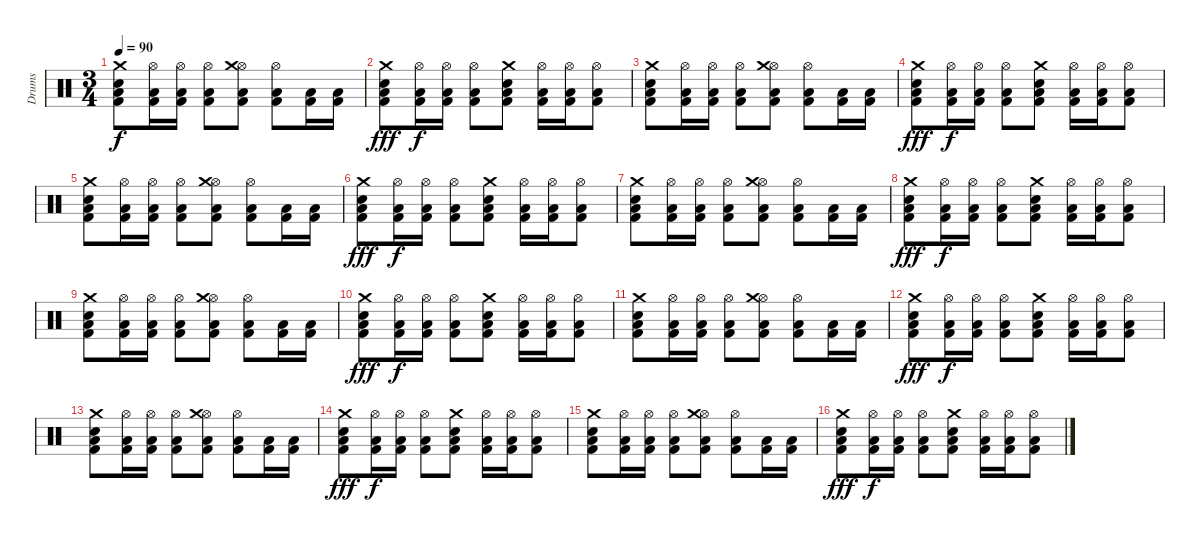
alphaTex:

\track ("Drums" "Drums") {instrument percussion}
\staff {score}
\articulation defaults
\ts (3 4)
\tempo 90
\clef neutral
\ks c
("Kick (hit) 2" "Low Floor Tom (hit)" "Electric Snare (hit)" "Crash medium (hit)").8{dy f} ("Kick (hit) 2" "Low Floor Tom (hit)" "Hi-Hat (open)").16 ("Kick (hit) 2" "Low Floor Tom (hit)" "Hi-Hat (open)").16 ("Kick (hit) 2" "Low Floor Tom (hit)" "Hi-Hat (open)").8 ("Kick (hit) 2" "Low Floor Tom (hit)" "Hi-Hat (open)" "Crash medium (hit)").8 ("Kick (hit) 2" "Low Floor Tom (hit)" "Hi-Hat (open)").8 ("Kick (hit) 2" "Low Floor Tom (hit)").16 ("Kick (hit) 2" "Low Floor Tom (hit)").16 |
("Kick (hit) 2" "Low Floor Tom (hit)" "Electric Snare (hit)" "Crash medium (hit)").8{dy fff} ("Kick (hit) 2" "Low Floor Tom (hit)" "Hi-Hat (open)").16{dy f} ("Kick (hit) 2" "Low Floor Tom (hit)" "Hi-Hat (open)").16 ("Kick (hit) 2" "Low Floor Tom (hit)" "Hi-Hat (open)").8 ("Kick (hit) 2" "Low Floor Tom (hit)" "Electric Snare (hit)" "Crash medium (hit)").8 ("Kick (hit) 2" "Low Floor Tom (hit)" "Hi-Hat (open)").16 ("Kick (hit) 2" "Low Floor Tom (hit)" "Hi-Hat (open)").16 ("Kick (hit) 2" "Low Floor Tom (hit)" "Hi-Hat (open)").8 |
("Kick (hit) 2" "Low Floor Tom (hit)" "Electric Snare (hit)" "Crash medium (hit)").8 ("Kick (hit) 2" "Low Floor Tom (hit)" "Hi-Hat (open)").16 ("Kick (hit) 2" "Low Floor Tom (hit)" "Hi-Hat (open)").16 ("Kick (hit) 2" "Low Floor Tom (hit)" "Hi-Hat (open)").8 ("Kick (hit) 2" "Low Floor Tom (hit)" "Hi-Hat (open)" "Crash medium (hit)").8 ("Kick (hit) 2" "Low Floor Tom (hit)" "Hi-Hat (open)").8 ("Kick (hit) 2" "Low Floor Tom (hit)").16 ("Kick (hit) 2" "Low Floor Tom (hit)").16 |
("Kick (hit) 2" "Low Floor Tom (hit)" "Electric Snare (hit)" "Crash medium (hit)").8{dy fff} ("Kick (hit) 2" "Low Floor Tom (hit)" "Hi-Hat (open)").16{dy f} ("Kick (hit) 2" "Low Floor Tom (hit)" "Hi-Hat (open)").16 ("Kick (hit) 2" "Low Floor Tom (hit)" "Hi-Hat (open)").8 ("Kick (hit) 2" "Low Floor Tom (hit)" "Electric Snare (hit)" "Crash medium (hit)").8 ("Kick (hit) 2" "Low Floor Tom (hit)" "Hi-Hat (open)").16 ("Kick (hit) 2" "Low Floor Tom (hit)" "Hi-Hat (open)").16 ("Kick (hit) 2" "Low Floor Tom (hit)" "Hi-Hat (open)").8 |
("Kick (hit) 2" "Low Floor Tom (hit)" "Electric Snare (hit)" "Crash medium (hit)").8 ("Kick (hit) 2" "Low Floor Tom (hit)" "Hi-Hat (open)").16 ("Kick (hit) 2" "Low Floor Tom (hit)" "Hi-Hat (open)").16 ("Kick (hit) 2" "Low Floor Tom (hit)" "Hi-Hat (open)").8 ("Kick (hit) 2" "Low Floor Tom (hit)" "Hi-Hat (open)" "Crash medium (hit)").8 ("Kick (hit) 2" "Low Floor Tom (hit)" "Hi-Hat (open)").8 ("Kick (hit) 2" "Low Floor Tom (hit)").16 ("Kick (hit) 2" "Low Floor Tom (hit)").16 |
("Kick (hit) 2" "Low Floor Tom (hit)" "Electric Snare (hit)" "Crash medium (hit)").8{dy fff} ("Kick (hit) 2" "Low Floor Tom (hit)" "Hi-Hat (open)").16{dy f} ("Kick (hit) 2" "Low Floor Tom (hit)" "Hi-Hat (open)").16 ("Kick (hit) 2" "Low Floor Tom (hit)" "Hi-Hat (open)").8 ("Kick (hit) 2" "Low Floor Tom (hit)" "Electric Snare (hit)" "Crash medium (hit)").8 ("Kick (hit) 2" "Low Floor Tom (hit)" "Hi-Hat (open)").16 ("Kick (hit) 2" "Low Floor Tom (hit)" "Hi-Hat (open)").16 ("Kick (hit) 2" "Low Floor Tom (hit)" "Hi-Hat (open)").8 |
("Kick (hit) 2" "Low Floor Tom (hit)" "Electric Snare (hit)" "Crash medium (hit)").8 ("Kick (hit) 2" "Low Floor Tom (hit)" "Hi-Hat (open)").16 ("Kick (hit) 2" "Low Floor Tom (hit)" "Hi-Hat (open)").16 ("Kick (hit) 2" "Low Floor Tom (hit)" "Hi-Hat (open)").8 ("Kick (hit) 2" "Low Floor Tom (hit)" "Hi-Hat (open)" "Crash medium (hit)").8 ("Kick (hit) 2" "Low Floor Tom (hit)" "Hi-Hat (open)").8 ("Kick (hit) 2" "Low Floor Tom (hit)").16 ("Kick (hit) 2" "Low Floor Tom (hit)").16 |
("Kick (hit) 2" "Low Floor Tom (hit)" "Electric Snare (hit)" "Crash medium (hit)").8{dy fff} ("Kick (hit) 2" "Low Floor Tom (hit)" "Hi-Hat (open)").16{dy f} ("Kick (hit) 2" "Low Floor Tom (hit)" "Hi-Hat (open)").16 ("Kick (hit) 2" "Low Floor Tom (hit)" "Hi-Hat (open)").8 ("Kick (hit) 2" "Low Floor Tom (hit)" "Electric Snare (hit)" "Crash medium (hit)").8 ("Kick (hit) 2" "Low Floor Tom (hit)" "Hi-Hat (open)").16 ("Kick (hit) 2" "Low Floor Tom (hit)" "Hi-Hat (open)").16 ("Kick (hit) 2" "Low Floor Tom (hit)" "Hi-Hat (open)").8 |
("Kick (hit) 2" "Low Floor Tom (hit)" "Electric Snare (hit)" "Crash medium (hit)").8 ("Kick (hit) 2" "Low Floor Tom (hit)" "Hi-Hat (open)").16 ("Kick (hit) 2" "Low Floor Tom (hit)" "Hi-Hat (open)").16 ("Kick (hit) 2" "Low Floor Tom (hit)" "Hi-Hat (open)").8 ("Kick (hit) 2" "Low Floor Tom (hit)" "Hi-Hat (open)" "Crash medium (hit)").8 ("Kick (hit) 2" "Low Floor Tom (hit)" "Hi-Hat (open)").8 ("Kick (hit) 2" "Low Floor Tom (hit)").16 ("Kick (hit) 2" "Low Floor Tom (hit)").16 |
("Kick (hit) 2" "Low Floor Tom (hit)" "Electric Snare (hit)" "Crash medium (hit)").8{dy fff} ("Kick (hit) 2" "Low Floor Tom (hit)" "Hi-Hat (open)").16{dy f} ("Kick (hit) 2" "Low Floor Tom (hit)" "Hi-Hat (open)").16 ("Kick (hit) 2" "Low Floor Tom (hit)" "Hi-Hat (open)").8 ("Kick (hit) 2" "Low Floor Tom (hit)" "Electric Snare (hit)" "Crash medium (hit)").8 ("Kick (hit) 2" "Low Floor Tom (hit)" "Hi-Hat (open)").16 ("Kick (hit) 2" "Low Floor Tom (hit)" "Hi-Hat (open)").16 ("Kick (hit) 2" "Low Floor Tom (hit)" "Hi-Hat (open)").8 |
("Kick (hit) 2" "Low Floor Tom (hit)" "Electric Snare (hit)" "Crash medium (hit)").8 ("Kick (hit) 2" "Low Floor Tom (hit)" "Hi-Hat (open)").16 ("Kick (hit) 2" "Low Floor Tom (hit)" "Hi-Hat (open)").16 ("Kick (hit) 2" "Low Floor Tom (hit)" "Hi-Hat (open)").8 ("Kick (hit) 2" "Low Floor Tom (hit)" "Hi-Hat (open)" "Crash medium (hit)").8 ("Kick (hit) 2" "Low Floor Tom (hit)" "Hi-Hat (open)").8 ("Kick (hit) 2" "Low Floor Tom (hit)").16 ("Kick (hit) 2" "Low Floor Tom (hit)").16 |
("Kick (hit) 2" "Low Floor Tom (hit)" "Electric Snare (hit)" "Crash medium (hit)").8{dy fff} ("Kick (hit) 2" "Low Floor Tom (hit)" "Hi-Hat (open)").16{dy f} ("Kick (hit) 2" "Low Floor Tom (hit)" "Hi-Hat (open)").16 ("Kick (hit) 2" "Low Floor Tom (hit)" "Hi-Hat (open)").8 ("Kick (hit) 2" "Low Floor Tom (hit)" "Electric Snare (hit)" "Crash medium (hit)").8 ("Kick (hit) 2" "Low Floor Tom (hit)" "Hi-Hat (open)").16 ("Kick (hit) 2" "Low Floor Tom (hit)" "Hi-Hat (open)").16 ("Kick (hit) 2" "Low Floor Tom (hit)" "Hi-Hat (open)").8 |
("Kick (hit) 2" "Low Floor Tom (hit)" "Electric Snare (hit)" "Crash medium (hit)").8 ("Kick (hit) 2" "Low Floor Tom (hit)" "Hi-Hat (open)").16 ("Kick (hit) 2" "Low Floor Tom (hit)" "Hi-Hat (open)").16 ("Kick (hit) 2" "Low Floor Tom (hit)" "Hi-Hat (open)").8 ("Kick (hit) 2" "Low Floor Tom (hit)" "Hi-Hat (open)" "Crash medium (hit)").8 ("Kick (hit) 2" "Low Floor Tom (hit)" "Hi-Hat (open)").8 ("Kick (hit) 2" "Low Floor Tom (hit)").16 ("Kick (hit) 2" "Low Floor Tom (hit)").16 |
("Kick (hit) 2" "Low Floor Tom (hit)" "Electric Snare (hit)" "Crash medium (hit)").8{dy fff} ("Kick (hit) 2" "Low Floor Tom (hit)" "Hi-Hat (open)").16{dy f} ("Kick (hit) 2" "Low Floor Tom (hit)" "Hi-Hat (open)").16 ("Kick (hit) 2" "Low Floor Tom (hit)" "Hi-Hat (open)").8 ("Kick (hit) 2" "Low Floor Tom (hit)" "Electric Snare (hit)" "Crash medium (hit)").8 ("Kick (hit) 2" "Low Floor Tom (hit)" "Hi-Hat (open)").16 ("Kick (hit) 2" "Low Floor Tom (hit)" "Hi-Hat (open)").16 ("Kick (hit) 2" "Low Floor Tom (hit)" "Hi-Hat (open)").8 |
("Kick (hit) 2" "Low Floor Tom (hit)" "Electric Snare (hit)" "Crash medium (hit)").8 ("Kick (hit) 2" "Low Floor Tom (hit)" "Hi-Hat (open)").16 ("Kick (hit) 2" "Low Floor Tom (hit)" "Hi-Hat (open)").16 ("Kick (hit) 2" "Low Floor Tom (hit)" "Hi-Hat (open)").8 ("Kick (hit) 2" "Low Floor Tom (hit)" "Hi-Hat (open)" "Crash medium (hit)").8 ("Kick (hit) 2" "Low Floor Tom (hit)" "Hi-Hat (open)").8 ("Kick (hit) 2" "Low Floor Tom (hit)").16 ("Kick (hit) 2" "Low Floor Tom (hit)").16 |
("Kick (hit) 2" "Low Floor Tom (hit)" "Electric Snare (hit)" "Crash medium (hit)").8{dy fff} ("Kick (hit) 2" "Low Floor Tom (hit)" "Hi-Hat (open)").16{dy f} ("Kick (hit) 2" "Low Floor Tom (hit)" "Hi-Hat (open)").16 ("Kick (hit) 2" "Low Floor Tom (hit)" "Hi-Hat (open)").8 ("Kick (hit) 2" "Low Floor Tom (hit)" "Electric Snare (hit)" "Crash medium (hit)").8 ("Kick (hit) 2" "Low Floor Tom (hit)" "Hi-Hat (open)").16 ("Kick (hit) 2" "Low Floor Tom (hit)" "Hi-Hat (open)").16 ("Kick (hit) 2" "Low Floor Tom (hit)" "Hi-Hat (open)").8
